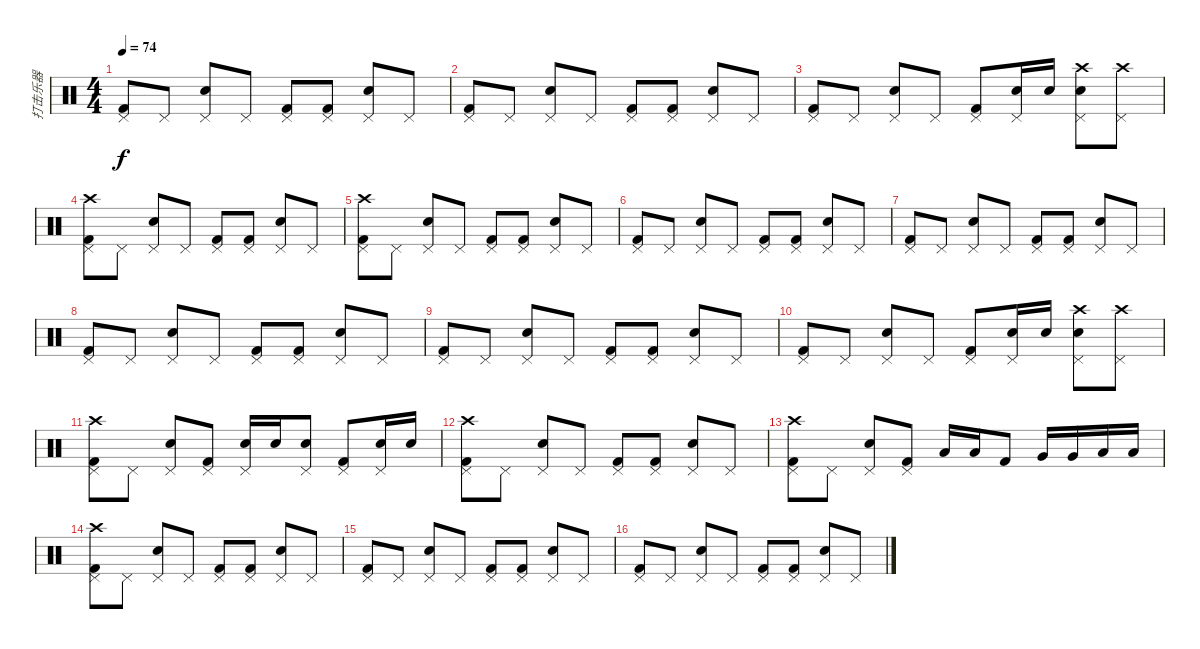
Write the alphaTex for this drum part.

\track ("打击乐器" "打击乐器") {instrument percussion}
\staff {score}
\articulation defaults
\ts (4 4)
\tempo 74
\clef neutral
\ks c
("Pedal Hi-Hat (hit)" "Kick (hit) 2").8{dy f} "Pedal Hi-Hat (hit)".8 ("Pedal Hi-Hat (hit)" "Electric Snare (hit)").8 "Pedal Hi-Hat (hit)".8 ("Pedal Hi-Hat (hit)" "Kick (hit) 2").8 ("Pedal Hi-Hat (hit)" "Kick (hit) 2").8 ("Pedal Hi-Hat (hit)" "Electric Snare (hit)").8 "Pedal Hi-Hat (hit)".8 |
("Pedal Hi-Hat (hit)" "Kick (hit) 2").8 "Pedal Hi-Hat (hit)".8 ("Pedal Hi-Hat (hit)" "Electric Snare (hit)").8 "Pedal Hi-Hat (hit)".8 ("Pedal Hi-Hat (hit)" "Kick (hit) 2").8 ("Pedal Hi-Hat (hit)" "Kick (hit) 2").8 ("Pedal Hi-Hat (hit)" "Electric Snare (hit)").8 "Pedal Hi-Hat (hit)".8 |
("Pedal Hi-Hat (hit)" "Kick (hit) 2").8 "Pedal Hi-Hat (hit)".8 ("Pedal Hi-Hat (hit)" "Electric Snare (hit)").8 "Pedal Hi-Hat (hit)".8 ("Pedal Hi-Hat (hit)" "Kick (hit) 2").8 ("Pedal Hi-Hat (hit)" "Electric Snare (hit)").16 "Electric Snare (hit)".16 ("Pedal Hi-Hat (hit)" "Electric Snare (hit)" "Crash high (hit)").8 ("Pedal Hi-Hat (hit)" "Crash high (hit)").8 |
("Pedal Hi-Hat (hit)" "Kick (hit) 2" "Crash high (hit)").8 "Pedal Hi-Hat (hit)".8 ("Pedal Hi-Hat (hit)" "Electric Snare (hit)").8 "Pedal Hi-Hat (hit)".8 ("Pedal Hi-Hat (hit)" "Kick (hit) 2").8 ("Pedal Hi-Hat (hit)" "Kick (hit) 2").8 ("Pedal Hi-Hat (hit)" "Electric Snare (hit)").8 "Pedal Hi-Hat (hit)".8 |
("Pedal Hi-Hat (hit)" "Kick (hit) 2" "Crash high (hit)").8 "Pedal Hi-Hat (hit)".8 ("Pedal Hi-Hat (hit)" "Electric Snare (hit)").8 "Pedal Hi-Hat (hit)".8 ("Pedal Hi-Hat (hit)" "Kick (hit) 2").8 ("Pedal Hi-Hat (hit)" "Kick (hit) 2").8 ("Pedal Hi-Hat (hit)" "Electric Snare (hit)").8 "Pedal Hi-Hat (hit)".8 |
("Pedal Hi-Hat (hit)" "Kick (hit) 2").8 "Pedal Hi-Hat (hit)".8 ("Pedal Hi-Hat (hit)" "Electric Snare (hit)").8 "Pedal Hi-Hat (hit)".8 ("Pedal Hi-Hat (hit)" "Kick (hit) 2").8 ("Pedal Hi-Hat (hit)" "Kick (hit) 2").8 ("Pedal Hi-Hat (hit)" "Electric Snare (hit)").8 "Pedal Hi-Hat (hit)".8 |
("Pedal Hi-Hat (hit)" "Kick (hit) 2").8 "Pedal Hi-Hat (hit)".8 ("Pedal Hi-Hat (hit)" "Electric Snare (hit)").8 "Pedal Hi-Hat (hit)".8 ("Pedal Hi-Hat (hit)" "Kick (hit) 2").8 ("Pedal Hi-Hat (hit)" "Kick (hit) 2").8 ("Pedal Hi-Hat (hit)" "Electric Snare (hit)").8 "Pedal Hi-Hat (hit)".8 |
("Pedal Hi-Hat (hit)" "Kick (hit) 2").8 "Pedal Hi-Hat (hit)".8 ("Pedal Hi-Hat (hit)" "Electric Snare (hit)").8 "Pedal Hi-Hat (hit)".8 ("Pedal Hi-Hat (hit)" "Kick (hit) 2").8 ("Pedal Hi-Hat (hit)" "Kick (hit) 2").8 ("Pedal Hi-Hat (hit)" "Electric Snare (hit)").8 "Pedal Hi-Hat (hit)".8 |
("Pedal Hi-Hat (hit)" "Kick (hit) 2").8 "Pedal Hi-Hat (hit)".8 ("Pedal Hi-Hat (hit)" "Electric Snare (hit)").8 "Pedal Hi-Hat (hit)".8 ("Pedal Hi-Hat (hit)" "Kick (hit) 2").8 ("Pedal Hi-Hat (hit)" "Kick (hit) 2").8 ("Pedal Hi-Hat (hit)" "Electric Snare (hit)").8 "Pedal Hi-Hat (hit)".8 |
("Pedal Hi-Hat (hit)" "Kick (hit) 2").8 "Pedal Hi-Hat (hit)".8 ("Pedal Hi-Hat (hit)" "Electric Snare (hit)").8 "Pedal Hi-Hat (hit)".8 ("Pedal Hi-Hat (hit)" "Kick (hit) 2").8 ("Pedal Hi-Hat (hit)" "Electric Snare (hit)").16 "Electric Snare (hit)".16 ("Pedal Hi-Hat (hit)" "Electric Snare (hit)" "Crash high (hit)").8 ("Pedal Hi-Hat (hit)" "Crash high (hit)").8 |
("Pedal Hi-Hat (hit)" "Kick (hit) 2" "Crash high (hit)").8 "Pedal Hi-Hat (hit)".8 ("Pedal Hi-Hat (hit)" "Electric Snare (hit)").8 ("Pedal Hi-Hat (hit)" "Kick (hit) 2").8 ("Pedal Hi-Hat (hit)" "Electric Snare (hit)").16 "Electric Snare (hit)".16 ("Pedal Hi-Hat (hit)" "Electric Snare (hit)").8 ("Pedal Hi-Hat (hit)" "Kick (hit) 2").8 ("Pedal Hi-Hat (hit)" "Electric Snare (hit)").16 "Electric Snare (hit)".16 |
("Pedal Hi-Hat (hit)" "Kick (hit) 2" "Crash high (hit)").8 "Pedal Hi-Hat (hit)".8 ("Pedal Hi-Hat (hit)" "Electric Snare (hit)").8 "Pedal Hi-Hat (hit)".8 ("Pedal Hi-Hat (hit)" "Kick (hit) 2").8 ("Pedal Hi-Hat (hit)" "Kick (hit) 2").8 ("Pedal Hi-Hat (hit)" "Electric Snare (hit)").8 "Pedal Hi-Hat (hit)".8 |
("Pedal Hi-Hat (hit)" "Kick (hit) 2" "Crash high (hit)").8 "Pedal Hi-Hat (hit)".8 ("Pedal Hi-Hat (hit)" "Electric Snare (hit)").8 ("Pedal Hi-Hat (hit)" "Kick (hit) 2").8 "Low Tom (hit)".16 "Low Tom (hit)".16 "Kick (hit) 2".8 "Very Low Tom (hit)".16 "Very Low Tom (hit)".16 "Low Floor Tom (hit)".16 "Low Floor Tom (hit)".16 |
("Pedal Hi-Hat (hit)" "Kick (hit) 2" "Crash high (hit)").8 "Pedal Hi-Hat (hit)".8 ("Pedal Hi-Hat (hit)" "Electric Snare (hit)").8 "Pedal Hi-Hat (hit)".8 ("Pedal Hi-Hat (hit)" "Kick (hit) 2").8 ("Pedal Hi-Hat (hit)" "Kick (hit) 2").8 ("Pedal Hi-Hat (hit)" "Electric Snare (hit)").8 "Pedal Hi-Hat (hit)".8 |
("Pedal Hi-Hat (hit)" "Kick (hit) 2").8 "Pedal Hi-Hat (hit)".8 ("Pedal Hi-Hat (hit)" "Electric Snare (hit)").8 "Pedal Hi-Hat (hit)".8 ("Pedal Hi-Hat (hit)" "Kick (hit) 2").8 ("Pedal Hi-Hat (hit)" "Kick (hit) 2").8 ("Pedal Hi-Hat (hit)" "Electric Snare (hit)").8 "Pedal Hi-Hat (hit)".8 |
("Pedal Hi-Hat (hit)" "Kick (hit) 2").8 "Pedal Hi-Hat (hit)".8 ("Pedal Hi-Hat (hit)" "Electric Snare (hit)").8 "Pedal Hi-Hat (hit)".8 ("Pedal Hi-Hat (hit)" "Kick (hit) 2").8 ("Pedal Hi-Hat (hit)" "Kick (hit) 2").8 ("Pedal Hi-Hat (hit)" "Electric Snare (hit)").8 "Pedal Hi-Hat (hit)".8
